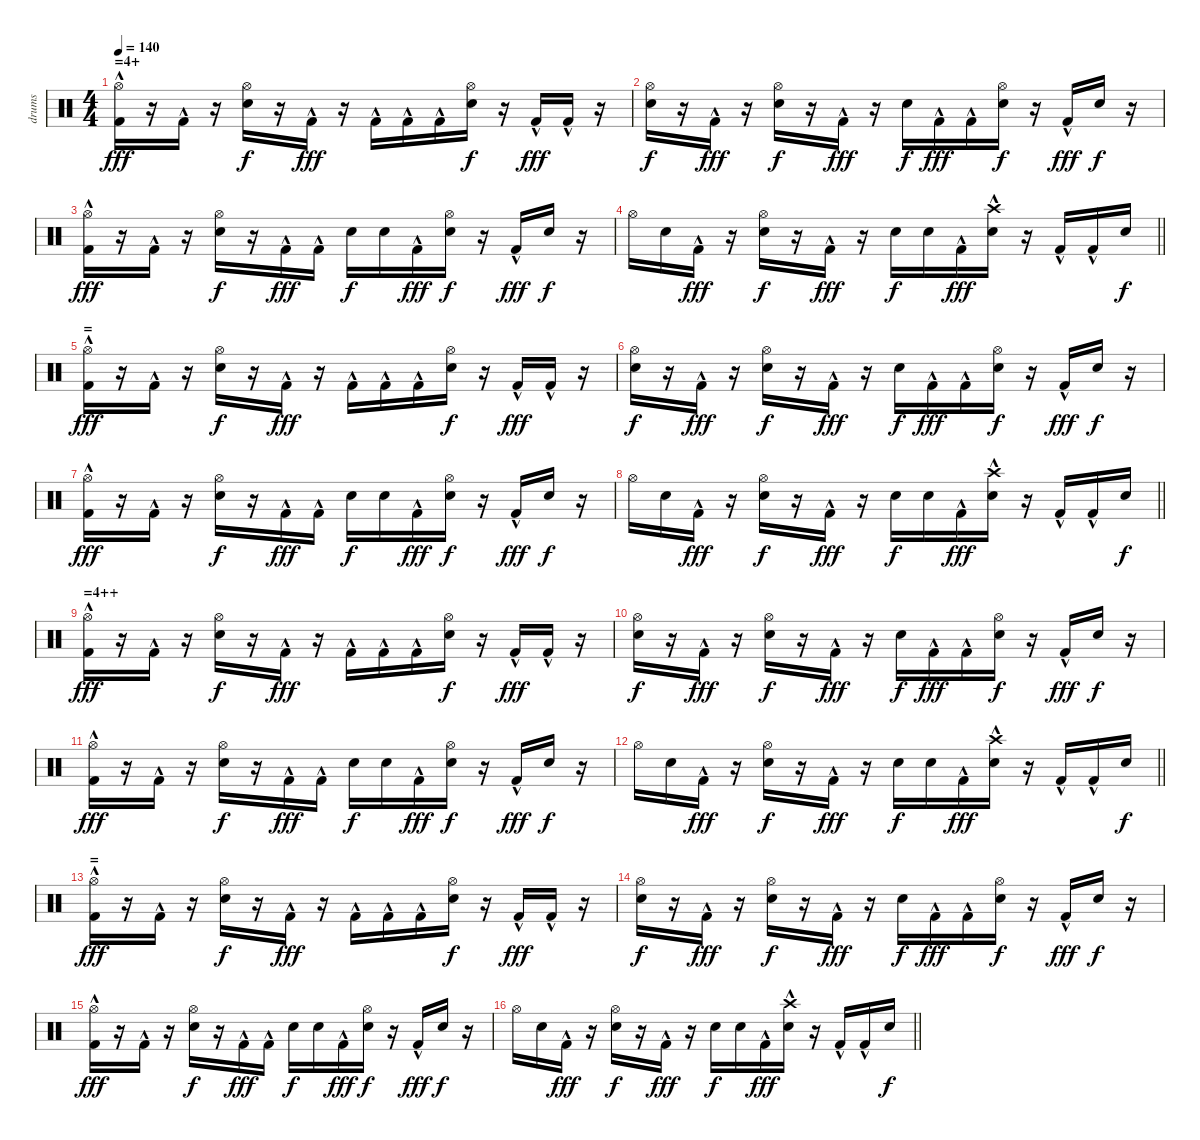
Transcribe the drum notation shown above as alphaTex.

\track ("drums" "drums") {instrument percussion}
\staff {score}
\articulation defaults
\ts (4 4)
\section ("" "=4+")
\tempo 140
\clef neutral
\ks c
("Kick (hit) 2"{hac} "Hi-Hat (open)").16{dy fff} r.16 "Kick (hit) 2"{hac}.16 r.16 ("Electric Snare (hit)" "Hi-Hat (open)").16{dy f} r.16 "Kick (hit) 2"{hac}.16{dy fff} r.16 "Kick (hit) 2"{hac}.16 "Kick (hit) 2"{hac}.16 "Kick (hit) 2"{hac}.16 ("Electric Snare (hit)" "Hi-Hat (open)").16{dy f} r.16 "Kick (hit) 2"{hac}.16{dy fff} "Kick (hit) 2"{hac}.16 r.16 |
("Electric Snare (hit)" "Hi-Hat (open)").16{dy f} r.16 "Kick (hit) 2"{hac}.16{dy fff} r.16 ("Electric Snare (hit)" "Hi-Hat (open)").16{dy f} r.16 "Kick (hit) 2"{hac}.16{dy fff} r.16 "Electric Snare (hit)".16{dy f} "Kick (hit) 2"{hac}.16{dy fff} "Kick (hit) 2"{hac}.16 ("Electric Snare (hit)" "Hi-Hat (open)").16{dy f} r.16 "Kick (hit) 2"{hac}.16{dy fff} "Electric Snare (hit)".16{dy f} r.16 |
("Kick (hit) 2"{hac} "Hi-Hat (open)").16{dy fff} r.16 "Kick (hit) 2"{hac}.16 r.16 ("Electric Snare (hit)" "Hi-Hat (open)").16{dy f} r.16 "Kick (hit) 2"{hac}.16{dy fff} "Kick (hit) 2"{hac}.16 "Electric Snare (hit)".16{dy f} "Electric Snare (hit)".16 "Kick (hit) 2"{hac}.16{dy fff} ("Electric Snare (hit)" "Hi-Hat (open)").16{dy f} r.16 "Kick (hit) 2"{hac}.16{dy fff} "Electric Snare (hit)".16{dy f} r.16 |
\barLineRight lightlight "Hi-Hat (open)".16 "Electric Snare (hit)".16 "Kick (hit) 2"{hac}.16{dy fff}
r.16 ("Electric Snare (hit)" "Hi-Hat (open)").16{dy f} r.16 "Kick (hit) 2"{hac}.16{dy fff} r.16 "Electric Snare (hit)".16{dy f} "Electric Snare (hit)".16 "Kick (hit) 2"{hac}.16{dy fff} ("Electric Snare (hit)" "Crash high (hit)"{hac}).16 r.16 "Kick (hit) 2"{hac}.16 "Kick (hit) 2"{hac}.16 "Electric Snare (hit)".16{dy f} |
\section ("" "=")
("Kick (hit) 2"{hac} "Hi-Hat (open)").16{dy fff} r.16 "Kick (hit) 2"{hac}.16 r.16 ("Electric Snare (hit)" "Hi-Hat (open)").16{dy f} r.16 "Kick (hit) 2"{hac}.16{dy fff} r.16 "Kick (hit) 2"{hac}.16 "Kick (hit) 2"{hac}.16 "Kick (hit) 2"{hac}.16 ("Electric Snare (hit)" "Hi-Hat (open)").16{dy f} r.16 "Kick (hit) 2"{hac}.16{dy fff} "Kick (hit) 2"{hac}.16 r.16 |
("Electric Snare (hit)" "Hi-Hat (open)").16{dy f} r.16 "Kick (hit) 2"{hac}.16{dy fff} r.16 ("Electric Snare (hit)" "Hi-Hat (open)").16{dy f} r.16 "Kick (hit) 2"{hac}.16{dy fff} r.16 "Electric Snare (hit)".16{dy f} "Kick (hit) 2"{hac}.16{dy fff} "Kick (hit) 2"{hac}.16 ("Electric Snare (hit)" "Hi-Hat (open)").16{dy f} r.16 "Kick (hit) 2"{hac}.16{dy fff} "Electric Snare (hit)".16{dy f} r.16 |
("Kick (hit) 2"{hac} "Hi-Hat (open)").16{dy fff} r.16 "Kick (hit) 2"{hac}.16 r.16 ("Electric Snare (hit)" "Hi-Hat (open)").16{dy f} r.16 "Kick (hit) 2"{hac}.16{dy fff} "Kick (hit) 2"{hac}.16 "Electric Snare (hit)".16{dy f} "Electric Snare (hit)".16 "Kick (hit) 2"{hac}.16{dy fff} ("Electric Snare (hit)" "Hi-Hat (open)").16{dy f} r.16 "Kick (hit) 2"{hac}.16{dy fff} "Electric Snare (hit)".16{dy f} r.16 |
\barLineRight lightlight "Hi-Hat (open)".16 "Electric Snare (hit)".16 "Kick (hit) 2"{hac}.16{dy fff}
r.16 ("Electric Snare (hit)" "Hi-Hat (open)").16{dy f} r.16 "Kick (hit) 2"{hac}.16{dy fff} r.16 "Electric Snare (hit)".16{dy f} "Electric Snare (hit)".16 "Kick (hit) 2"{hac}.16{dy fff} ("Electric Snare (hit)" "Crash high (hit)"{hac}).16 r.16 "Kick (hit) 2"{hac}.16 "Kick (hit) 2"{hac}.16 "Electric Snare (hit)".16{dy f} |
\section ("" "=4++")
("Kick (hit) 2"{hac} "Hi-Hat (open)").16{dy fff} r.16 "Kick (hit) 2"{hac}.16 r.16 ("Electric Snare (hit)" "Hi-Hat (open)").16{dy f} r.16 "Kick (hit) 2"{hac}.16{dy fff} r.16 "Kick (hit) 2"{hac}.16 "Kick (hit) 2"{hac}.16 "Kick (hit) 2"{hac}.16 ("Electric Snare (hit)" "Hi-Hat (open)").16{dy f} r.16 "Kick (hit) 2"{hac}.16{dy fff} "Kick (hit) 2"{hac}.16 r.16 |
("Electric Snare (hit)" "Hi-Hat (open)").16{dy f} r.16 "Kick (hit) 2"{hac}.16{dy fff} r.16 ("Electric Snare (hit)" "Hi-Hat (open)").16{dy f} r.16 "Kick (hit) 2"{hac}.16{dy fff} r.16 "Electric Snare (hit)".16{dy f} "Kick (hit) 2"{hac}.16{dy fff} "Kick (hit) 2"{hac}.16 ("Electric Snare (hit)" "Hi-Hat (open)").16{dy f} r.16 "Kick (hit) 2"{hac}.16{dy fff} "Electric Snare (hit)".16{dy f} r.16 |
("Kick (hit) 2"{hac} "Hi-Hat (open)").16{dy fff} r.16 "Kick (hit) 2"{hac}.16 r.16 ("Electric Snare (hit)" "Hi-Hat (open)").16{dy f} r.16 "Kick (hit) 2"{hac}.16{dy fff} "Kick (hit) 2"{hac}.16 "Electric Snare (hit)".16{dy f} "Electric Snare (hit)".16 "Kick (hit) 2"{hac}.16{dy fff} ("Electric Snare (hit)" "Hi-Hat (open)").16{dy f} r.16 "Kick (hit) 2"{hac}.16{dy fff} "Electric Snare (hit)".16{dy f} r.16 |
\barLineRight lightlight "Hi-Hat (open)".16 "Electric Snare (hit)".16 "Kick (hit) 2"{hac}.16{dy fff}
r.16 ("Electric Snare (hit)" "Hi-Hat (open)").16{dy f} r.16 "Kick (hit) 2"{hac}.16{dy fff} r.16 "Electric Snare (hit)".16{dy f} "Electric Snare (hit)".16 "Kick (hit) 2"{hac}.16{dy fff} ("Electric Snare (hit)" "Crash high (hit)"{hac}).16 r.16 "Kick (hit) 2"{hac}.16 "Kick (hit) 2"{hac}.16 "Electric Snare (hit)".16{dy f} |
\section ("" "=")
("Kick (hit) 2"{hac} "Hi-Hat (open)").16{dy fff} r.16 "Kick (hit) 2"{hac}.16 r.16 ("Electric Snare (hit)" "Hi-Hat (open)").16{dy f} r.16 "Kick (hit) 2"{hac}.16{dy fff} r.16 "Kick (hit) 2"{hac}.16 "Kick (hit) 2"{hac}.16 "Kick (hit) 2"{hac}.16 ("Electric Snare (hit)" "Hi-Hat (open)").16{dy f} r.16 "Kick (hit) 2"{hac}.16{dy fff} "Kick (hit) 2"{hac}.16 r.16 |
("Electric Snare (hit)" "Hi-Hat (open)").16{dy f} r.16 "Kick (hit) 2"{hac}.16{dy fff} r.16 ("Electric Snare (hit)" "Hi-Hat (open)").16{dy f} r.16 "Kick (hit) 2"{hac}.16{dy fff} r.16 "Electric Snare (hit)".16{dy f} "Kick (hit) 2"{hac}.16{dy fff} "Kick (hit) 2"{hac}.16 ("Electric Snare (hit)" "Hi-Hat (open)").16{dy f} r.16 "Kick (hit) 2"{hac}.16{dy fff} "Electric Snare (hit)".16{dy f} r.16 |
("Kick (hit) 2"{hac} "Hi-Hat (open)").16{dy fff} r.16 "Kick (hit) 2"{hac}.16 r.16 ("Electric Snare (hit)" "Hi-Hat (open)").16{dy f} r.16 "Kick (hit) 2"{hac}.16{dy fff} "Kick (hit) 2"{hac}.16 "Electric Snare (hit)".16{dy f} "Electric Snare (hit)".16 "Kick (hit) 2"{hac}.16{dy fff} ("Electric Snare (hit)" "Hi-Hat (open)").16{dy f} r.16 "Kick (hit) 2"{hac}.16{dy fff} "Electric Snare (hit)".16{dy f} r.16 |
\barLineRight lightlight "Hi-Hat (open)".16 "Electric Snare (hit)".16 "Kick (hit) 2"{hac}.16{dy fff}
r.16 ("Electric Snare (hit)" "Hi-Hat (open)").16{dy f} r.16 "Kick (hit) 2"{hac}.16{dy fff} r.16 "Electric Snare (hit)".16{dy f} "Electric Snare (hit)".16 "Kick (hit) 2"{hac}.16{dy fff} ("Electric Snare (hit)" "Crash high (hit)"{hac}).16 r.16 "Kick (hit) 2"{hac}.16 "Kick (hit) 2"{hac}.16 "Electric Snare (hit)".16{dy f}
